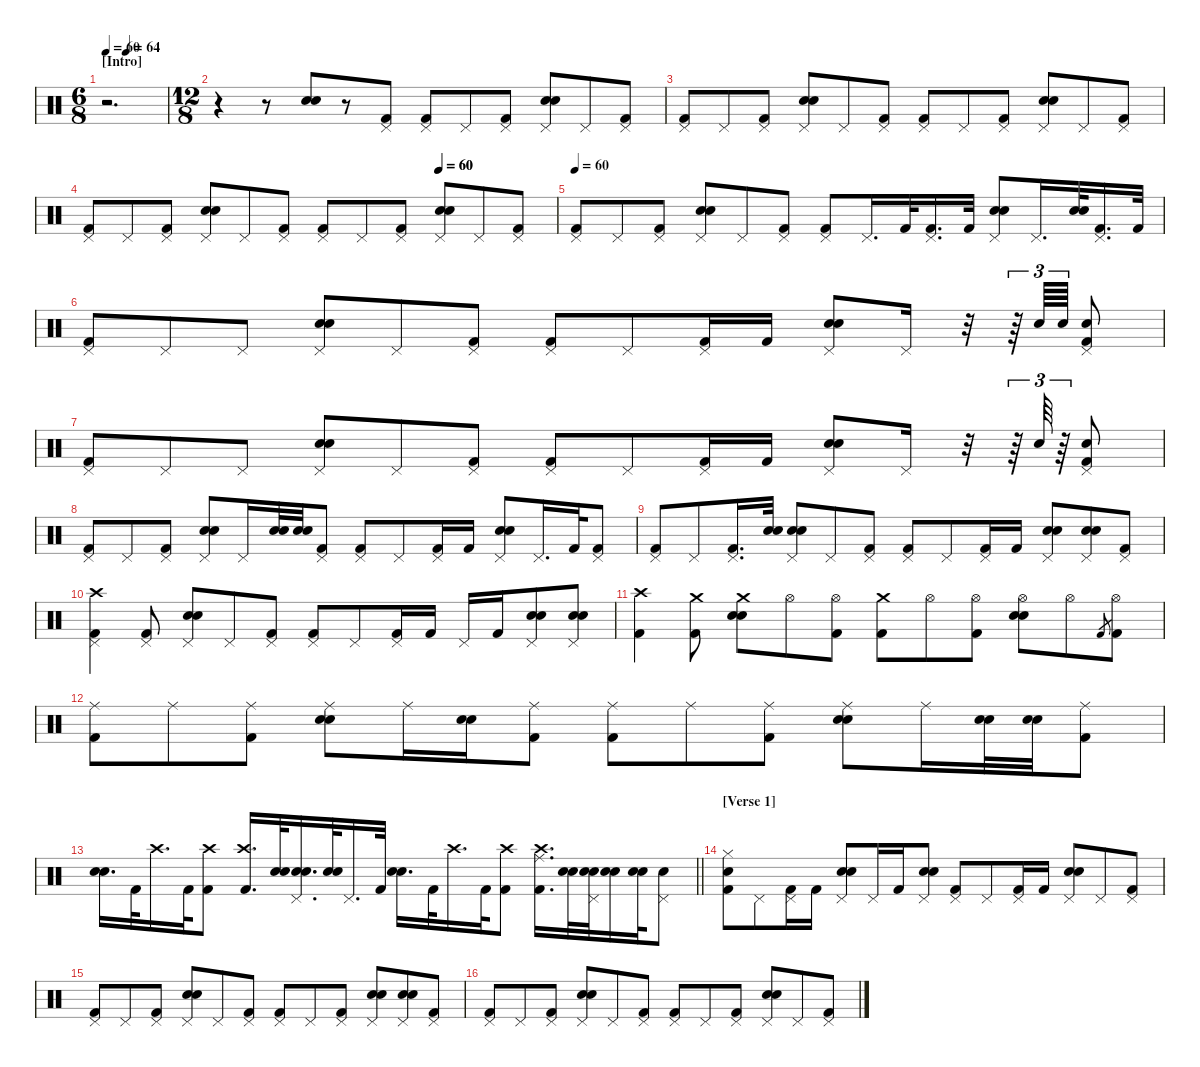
\defaultSystemsLayout 4
\hideDynamics
\bracketExtendMode nobrackets
\singleTrackTrackNamePolicy hidden
\multiTrackTrackNamePolicy hidden
\otherSystemsTrackNameOrientation horizontal
\track ("Drums" "drm.") {instrument percussion}
\staff {score}
\articulation defaults
\ts (6 8)
\beaming (8 3 3)
\section ("" "[Intro]")
\tempo 60
\tempo (64 0.333233)
\clef neutral
\ks c
r.2{d dy mf beam Down} |
\ts (12 8)
\beaming (8 3 3 3 3)
r.4{beam Down} r.8{beam Down} ("Snare (hit) 2" "Snare (hit) 2").8{beam Up} r.8{beam Up} ("Pedal Hi-Hat (hit)" "Kick (hit) 2").8{beam Up} ("Pedal Hi-Hat (hit)" "Kick (hit) 2").8{beam Up} "Pedal Hi-Hat (hit)".8{beam Up} ("Pedal Hi-Hat (hit)" "Kick (hit) 2").8{beam Up} ("Pedal Hi-Hat (hit)" "Snare (hit) 2" "Snare (hit) 2").8{beam Up} "Pedal Hi-Hat (hit)".8{beam Up} ("Pedal Hi-Hat (hit)" "Kick (hit) 2").8{beam Up} |
("Pedal Hi-Hat (hit)" "Kick (hit) 2").8{beam Up} "Pedal Hi-Hat (hit)".8{beam Up} ("Pedal Hi-Hat (hit)" "Kick (hit) 2").8{beam Up} ("Pedal Hi-Hat (hit)" "Snare (hit) 2" "Snare (hit) 2").8{beam Up} "Pedal Hi-Hat (hit)".8{beam Up} ("Pedal Hi-Hat (hit)" "Kick (hit) 2").8{beam Up} ("Pedal Hi-Hat (hit)" "Kick (hit) 2").8{beam Up} "Pedal Hi-Hat (hit)".8{beam Up} ("Pedal Hi-Hat (hit)" "Kick (hit) 2").8{beam Up} ("Pedal Hi-Hat (hit)" "Snare (hit) 2" "Snare (hit) 2").8{beam Up} "Pedal Hi-Hat (hit)".8{beam Up} ("Pedal Hi-Hat (hit)" "Kick (hit) 2").8{beam Up} |
\tempo (60 0.7499)
\tempo (60 0.75)
("Pedal Hi-Hat (hit)" "Kick (hit) 2").8{beam Up} "Pedal Hi-Hat (hit)".8{beam Up} ("Pedal Hi-Hat (hit)" "Kick (hit) 2").8{beam Up} ("Pedal Hi-Hat (hit)" "Snare (hit) 2" "Snare (hit) 2").8{beam Up} "Pedal Hi-Hat (hit)".8{beam Up} ("Pedal Hi-Hat (hit)" "Kick (hit) 2").8{beam Up} ("Pedal Hi-Hat (hit)" "Kick (hit) 2").8{beam Up} "Pedal Hi-Hat (hit)".8{beam Up} ("Pedal Hi-Hat (hit)" "Kick (hit) 2").8{beam Up} ("Pedal Hi-Hat (hit)" "Snare (hit) 2" "Snare (hit) 2").8{beam Up} "Pedal Hi-Hat (hit)".8{beam Up} ("Pedal Hi-Hat (hit)" "Kick (hit) 2").8{beam Up} |
\tempo 60
("Pedal Hi-Hat (hit)" "Kick (hit) 2").8{beam Up} "Pedal Hi-Hat (hit)".8{beam Up} ("Pedal Hi-Hat (hit)" "Kick (hit) 2").8{beam Up} ("Pedal Hi-Hat (hit)" "Snare (hit) 2" "Snare (hit) 2").8{dy f beam Up} "Pedal Hi-Hat (hit)".8{dy mf beam Up} ("Pedal Hi-Hat (hit)" "Kick (hit) 2").8{beam Up} ("Pedal Hi-Hat (hit)" "Kick (hit) 2").8{dy ff beam Up} "Pedal Hi-Hat (hit)".16{d dy mf beam Up} "Kick (hit) 2".32{dy f beam Up} ("Pedal Hi-Hat (hit)" "Kick (hit) 2").16{d dy mp beam Up} "Kick (hit) 2".32{dy f beam Up} ("Pedal Hi-Hat (hit)" "Snare (hit) 2" "Snare (hit) 2").8{beam Up} "Pedal Hi-Hat (hit)".16{d beam Up} ("Snare (hit) 2" "Snare (hit) 2").32{dy ff beam Up} ("Pedal Hi-Hat (hit)" "Kick (hit) 2").16{d dy mf beam Up} "Kick (hit) 2".32{dy mp beam Up} |
("Pedal Hi-Hat (hit)" "Kick (hit) 2").8{dy mf beam Up} "Pedal Hi-Hat (hit)".8{beam Up} "Pedal Hi-Hat (hit)".8{beam Up} ("Pedal Hi-Hat (hit)" "Snare (hit) 2" "Snare (hit) 2").8{beam Up} "Pedal Hi-Hat (hit)".8{beam Up} ("Pedal Hi-Hat (hit)" "Kick (hit) 2").8{beam Up} ("Pedal Hi-Hat (hit)" "Kick (hit) 2").8{beam Up} "Pedal Hi-Hat (hit)".8{beam Up} ("Pedal Hi-Hat (hit)" "Kick (hit) 2").16{beam Up} "Kick (hit) 2".16{beam Up} ("Pedal Hi-Hat (hit)" "Snare (hit) 2" "Snare (hit) 2").8{beam Up} "Pedal Hi-Hat (hit)".16{beam Up} r.32{beam Up} r.64{tu (3 2) beam Up} "Snare (hit) 2".64{tu (3 2) dy ppp beam Down} "Snare (hit) 2".64{tu (3 2) dy pp beam Down} ("Pedal Hi-Hat (hit)" "Kick (hit) 2" "Snare (hit) 2").8{dy f beam Up} |
("Pedal Hi-Hat (hit)" "Kick (hit) 2").8{dy mf beam Up} "Pedal Hi-Hat (hit)".8{beam Up} "Pedal Hi-Hat (hit)".8{beam Up} ("Pedal Hi-Hat (hit)" "Snare (hit) 2" "Snare (hit) 2").8{beam Up} "Pedal Hi-Hat (hit)".8{beam Up} ("Pedal Hi-Hat (hit)" "Kick (hit) 2").8{beam Up} ("Pedal Hi-Hat (hit)" "Kick (hit) 2").8{beam Up} "Pedal Hi-Hat (hit)".8{beam Up} ("Pedal Hi-Hat (hit)" "Kick (hit) 2").16{beam Up} "Kick (hit) 2".16{beam Up} ("Pedal Hi-Hat (hit)" "Snare (hit) 2" "Snare (hit) 2").8{beam Up} "Pedal Hi-Hat (hit)".16{beam Up} r.32{beam Up} r.64{tu (3 2) beam Up} "Snare (hit) 2".64{tu (3 2) dy ppp beam Down} r.64{tu (3 2) beam Down} ("Pedal Hi-Hat (hit)" "Kick (hit) 2" "Snare (hit) 2").8{dy f beam Up} |
("Pedal Hi-Hat (hit)" "Kick (hit) 2").8{dy mf beam Up} "Pedal Hi-Hat (hit)".8{beam Up} ("Pedal Hi-Hat (hit)" "Kick (hit) 2").8{beam Up} ("Pedal Hi-Hat (hit)" "Snare (hit) 2" "Snare (hit) 2").8{beam Up} "Pedal Hi-Hat (hit)".16{beam Up} ("Snare (hit) 2" "Snare (hit) 2").32{dy mp beam Up} ("Snare (hit) 2" "Snare (hit) 2").32{beam Up} ("Pedal Hi-Hat (hit)" "Kick (hit) 2").8{dy mf beam Up} ("Pedal Hi-Hat (hit)" "Kick (hit) 2").8{beam Up} "Pedal Hi-Hat (hit)".8{beam Up} ("Pedal Hi-Hat (hit)" "Kick (hit) 2").16{beam Up} "Kick (hit) 2".16{beam Up} ("Pedal Hi-Hat (hit)" "Snare (hit) 2" "Snare (hit) 2").8{beam Up} "Pedal Hi-Hat (hit)".16{d beam Up} "Kick (hit) 2".32{dy fff beam Up} ("Pedal Hi-Hat (hit)" "Kick (hit) 2").8{dy mf beam Up} |
("Pedal Hi-Hat (hit)" "Kick (hit) 2").8{beam Up} "Pedal Hi-Hat (hit)".8{beam Up} ("Pedal Hi-Hat (hit)" "Kick (hit) 2").16{d beam Up} ("Snare (hit) 2" "Snare (hit) 2").32{dy f beam Up} ("Pedal Hi-Hat (hit)" "Snare (hit) 2" "Snare (hit) 2").8{dy mf beam Up} "Pedal Hi-Hat (hit)".8{beam Up} ("Pedal Hi-Hat (hit)" "Kick (hit) 2").8{beam Up} ("Pedal Hi-Hat (hit)" "Kick (hit) 2").8{beam Up} "Pedal Hi-Hat (hit)".8{beam Up} ("Pedal Hi-Hat (hit)" "Kick (hit) 2").16{beam Up} "Kick (hit) 2".16{dy fff beam Up} ("Pedal Hi-Hat (hit)" "Snare (hit) 2" "Snare (hit) 2").8{dy mf beam Up} ("Pedal Hi-Hat (hit)" "Snare (hit) 2" "Snare (hit) 2").8{beam Up} ("Pedal Hi-Hat (hit)" "Kick (hit) 2").8{beam Up} |
("Crash high (hit)" "Pedal Hi-Hat (hit)" "Kick (hit) 2").4{dy fff beam Down} ("Pedal Hi-Hat (hit)" "Kick (hit) 2").8{dy f beam Up} ("Pedal Hi-Hat (hit)" "Snare (hit) 2" "Snare (hit) 2").8{beam Up} "Pedal Hi-Hat (hit)".8{beam Up} ("Pedal Hi-Hat (hit)" "Kick (hit) 2").8{beam Up} ("Pedal Hi-Hat (hit)" "Kick (hit) 2").8{beam Up} "Pedal Hi-Hat (hit)".8{beam Up} ("Pedal Hi-Hat (hit)" "Kick (hit) 2").16{beam Up} "Kick (hit) 2".16{beam Up} "Pedal Hi-Hat (hit)".16{beam Up} "Kick (hit) 2".16{beam Up} ("Pedal Hi-Hat (hit)" "Snare (hit) 2" "Snare (hit) 2").8{beam Up} ("Pedal Hi-Hat (hit)" "Snare (hit) 2" "Snare (hit) 2").8{beam Up} |
("Crash high (hit)" "Kick (hit) 2").4{dy fff beam Down} ("Crash medium (hit)" "Kick (hit) 2").8{dy mp beam Down} ("Crash medium (hit)" "Snare (hit) 2" "Snare (hit) 2").8{beam Down} "Hi-Hat (open)".8{dy f beam Down} ("Hi-Hat (open)" "Kick (hit) 2").8{beam Down} ("Crash medium (hit)" "Kick (hit) 2").8{dy mp beam Down} "Hi-Hat (open)".8{dy f beam Down} ("Hi-Hat (open)" "Kick (hit) 2").8{beam Down} ("Hi-Hat (open)" "Snare (hit) 2" "Snare (hit) 2").8{beam Down} "Hi-Hat (open)".8{beam Down} "Kick (hit) 2".8{gr dy mf beam Up} ("Hi-Hat (open)" "Kick (hit) 2").8{dy f beam Down} |
("Ride (middle)" "Kick (hit) 2").8{beam Down} "Ride (middle)".8{beam Down} ("Ride (middle)" "Kick (hit) 2").8{beam Down} ("Ride (middle)" "Snare (hit) 2" "Snare (hit) 2").8{beam Down} "Ride (middle)".16{beam Down} ("Snare (hit) 2" "Snare (hit) 2").16{dy mf beam Down} ("Ride (middle)" "Kick (hit) 2").8{dy f beam Down} ("Ride (middle)" "Kick (hit) 2").8{beam Down} "Ride (middle)".8{beam Down} ("Ride (middle)" "Kick (hit) 2").8{beam Down} ("Ride (middle)" "Snare (hit) 2" "Snare (hit) 2").8{beam Down} "Ride (middle)".16{beam Down} ("Snare (hit) 2" "Snare (hit) 2").32{dy mp beam Down} ("Snare (hit) 2" "Snare (hit) 2").32{beam Down} ("Ride (middle)" "Kick (hit) 2").8{dy f beam Down} |
\barLineRight lightlight
("Snare (hit) 2" "Snare (hit) 2").16{d dy mf beam Down} "Kick (hit) 2".32{dy f beam Down} "Crash high (hit)".16{d beam Down} "Kick (hit) 2".32{beam Down} ("Crash high (hit)" "Kick (hit) 2").8{beam Down} ("Crash high (hit)" "Kick (hit) 2").16{d beam Up} ("Snare (hit) 2" "Snare (hit) 2").32{dy mf beam Up} ("Pedal Hi-Hat (hit)" "Snare (hit) 2" "Snare (hit) 2").16{d dy f beam Up} ("Snare (hit) 2" "Snare (hit) 2").32{beam Up} "Pedal Hi-Hat (hit)".16{d beam Up} "Kick (hit) 2".32{beam Up} ("Snare (hit) 2" "Snare (hit) 2").16{d beam Down} "Kick (hit) 2".32{beam Down} "Crash high (hit)".16{d beam Down} "Kick (hit) 2".32{beam Down} ("Kick (hit) 2" "Crash high (hit)").8{beam Down} ("Ride (middle)" "Kick (hit) 2" "Crash high (hit)").16{d beam Down} ("Snare (hit) 2" "Snare (hit) 2").32{beam Down} ("Pedal Hi-Hat (hit)" "Snare (hit) 2" "Snare (hit) 2").32{beam Down} ("Snare (hit) 2" "Snare (hit) 2").16{dy mf beam Down} ("Snare (hit) 2" "Snare (hit) 2").32{beam Down} ("Pedal Hi-Hat (hit)" "Snare (hit) 2").8{dy f beam Down} |
\section ("" "[Verse 1]")
("Hi-Hat (closed)" "Snare (hit) 2" "Kick (hit) 2").8{beam Down} "Pedal Hi-Hat (hit)".8{beam Down} ("Pedal Hi-Hat (hit)" "Kick (hit) 2").16{beam Down} "Kick (hit) 2".16{beam Down} ("Pedal Hi-Hat (hit)" "Snare (hit) 2" "Snare (hit) 2").8{beam Up} "Pedal Hi-Hat (hit)".16{beam Up} "Kick (hit) 2".16{beam Up} ("Pedal Hi-Hat (hit)" "Snare (hit) 2" "Snare (hit) 2").8{beam Up} ("Pedal Hi-Hat (hit)" "Kick (hit) 2").8{beam Up} "Pedal Hi-Hat (hit)".8{beam Up} ("Pedal Hi-Hat (hit)" "Kick (hit) 2").16{beam Up} "Kick (hit) 2".16{beam Up} ("Pedal Hi-Hat (hit)" "Snare (hit) 2" "Snare (hit) 2").8{beam Up} "Pedal Hi-Hat (hit)".8{beam Up} ("Pedal Hi-Hat (hit)" "Kick (hit) 2").8{beam Up} |
("Pedal Hi-Hat (hit)" "Kick (hit) 2").8{dy mf beam Up} "Pedal Hi-Hat (hit)".8{beam Up} ("Pedal Hi-Hat (hit)" "Kick (hit) 2").8{beam Up} ("Pedal Hi-Hat (hit)" "Snare (hit) 2" "Snare (hit) 2").8{beam Up} "Pedal Hi-Hat (hit)".8{beam Up} ("Pedal Hi-Hat (hit)" "Kick (hit) 2").8{beam Up} ("Pedal Hi-Hat (hit)" "Kick (hit) 2").8{beam Up} "Pedal Hi-Hat (hit)".8{beam Up} ("Pedal Hi-Hat (hit)" "Kick (hit) 2").8{beam Up} ("Pedal Hi-Hat (hit)" "Snare (hit) 2" "Snare (hit) 2").8{beam Up} ("Pedal Hi-Hat (hit)" "Snare (hit) 2" "Snare (hit) 2").8{beam Up} ("Pedal Hi-Hat (hit)" "Kick (hit) 2").8{beam Up} |
("Pedal Hi-Hat (hit)" "Kick (hit) 2").8{dy f beam Up} "Pedal Hi-Hat (hit)".8{beam Up} ("Pedal Hi-Hat (hit)" "Kick (hit) 2").8{beam Up} ("Pedal Hi-Hat (hit)" "Snare (hit) 2" "Snare (hit) 2").8{beam Up} "Pedal Hi-Hat (hit)".8{beam Up} ("Pedal Hi-Hat (hit)" "Kick (hit) 2").8{beam Up} ("Pedal Hi-Hat (hit)" "Kick (hit) 2").8{beam Up} "Pedal Hi-Hat (hit)".8{beam Up} ("Pedal Hi-Hat (hit)" "Kick (hit) 2").8{beam Up} ("Pedal Hi-Hat (hit)" "Snare (hit) 2" "Snare (hit) 2").8{beam Up} "Pedal Hi-Hat (hit)".8{beam Up} ("Pedal Hi-Hat (hit)" "Kick (hit) 2").8{beam Up}
